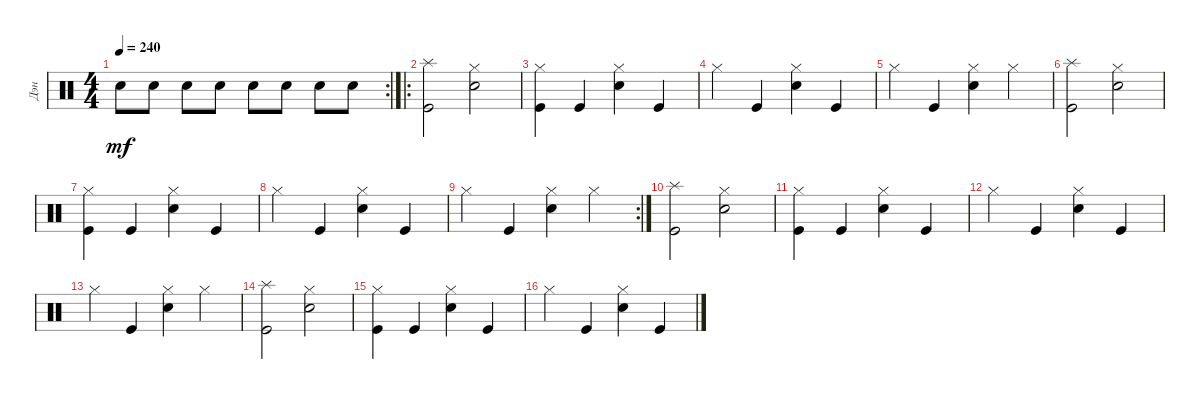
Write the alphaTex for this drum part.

\track ("Дэн" "Дэн") {instrument percussion}
\staff {score}
\articulation defaults
\rc 2
\ts (4 4)
\tempo 240
\clef neutral
\ks c "Snare (hit) 2".8{dy mf} "Snare (hit) 2".8 "Snare (hit) 2".8 "Snare (hit) 2".8 "Snare (hit) 2".8 "Snare (hit) 2".8 "Snare (hit) 2".8 "Snare (hit) 2".8
|
\ro
("Kick (hit)" "Splash (hit)").2 ("Snare (hit) 2" "Hi-Hat (closed)").2 |
("Kick (hit)" "Hi-Hat (closed)").4 "Kick (hit)".4 ("Snare (hit) 2" "Hi-Hat (closed)").4 "Kick (hit)".4 |
"Hi-Hat (closed)".4 "Kick (hit)".4 ("Snare (hit) 2" "Hi-Hat (closed)").4 "Kick (hit)".4 |
"Hi-Hat (closed)".4 "Kick (hit)".4 ("Snare (hit) 2" "Hi-Hat (closed)").4 "Hi-Hat (closed)".4 |
("Kick (hit)" "Splash (hit)").2 ("Snare (hit) 2" "Hi-Hat (closed)").2 |
("Kick (hit)" "Hi-Hat (closed)").4 "Kick (hit)".4 ("Snare (hit) 2" "Hi-Hat (closed)").4 "Kick (hit)".4 |
"Hi-Hat (closed)".4 "Kick (hit)".4 ("Snare (hit) 2" "Hi-Hat (closed)").4 "Kick (hit)".4 |
\rc 2 "Hi-Hat (closed)".4 "Kick (hit)".4
("Snare (hit) 2" "Hi-Hat (closed)").4 "Hi-Hat (closed)".4 |
("Kick (hit)" "Splash (hit)").2 ("Snare (hit) 2" "Hi-Hat (closed)").2 |
("Kick (hit)" "Hi-Hat (closed)").4 "Kick (hit)".4 ("Snare (hit) 2" "Hi-Hat (closed)").4 "Kick (hit)".4 |
"Hi-Hat (closed)".4 "Kick (hit)".4 ("Snare (hit) 2" "Hi-Hat (closed)").4 "Kick (hit)".4 |
"Hi-Hat (closed)".4 "Kick (hit)".4 ("Snare (hit) 2" "Hi-Hat (closed)").4 "Hi-Hat (closed)".4 |
("Kick (hit)" "Splash (hit)").2 ("Snare (hit) 2" "Hi-Hat (closed)").2 |
("Kick (hit)" "Hi-Hat (closed)").4 "Kick (hit)".4 ("Snare (hit) 2" "Hi-Hat (closed)").4 "Kick (hit)".4 |
"Hi-Hat (closed)".4 "Kick (hit)".4 ("Snare (hit) 2" "Hi-Hat (closed)").4 "Kick (hit)".4
